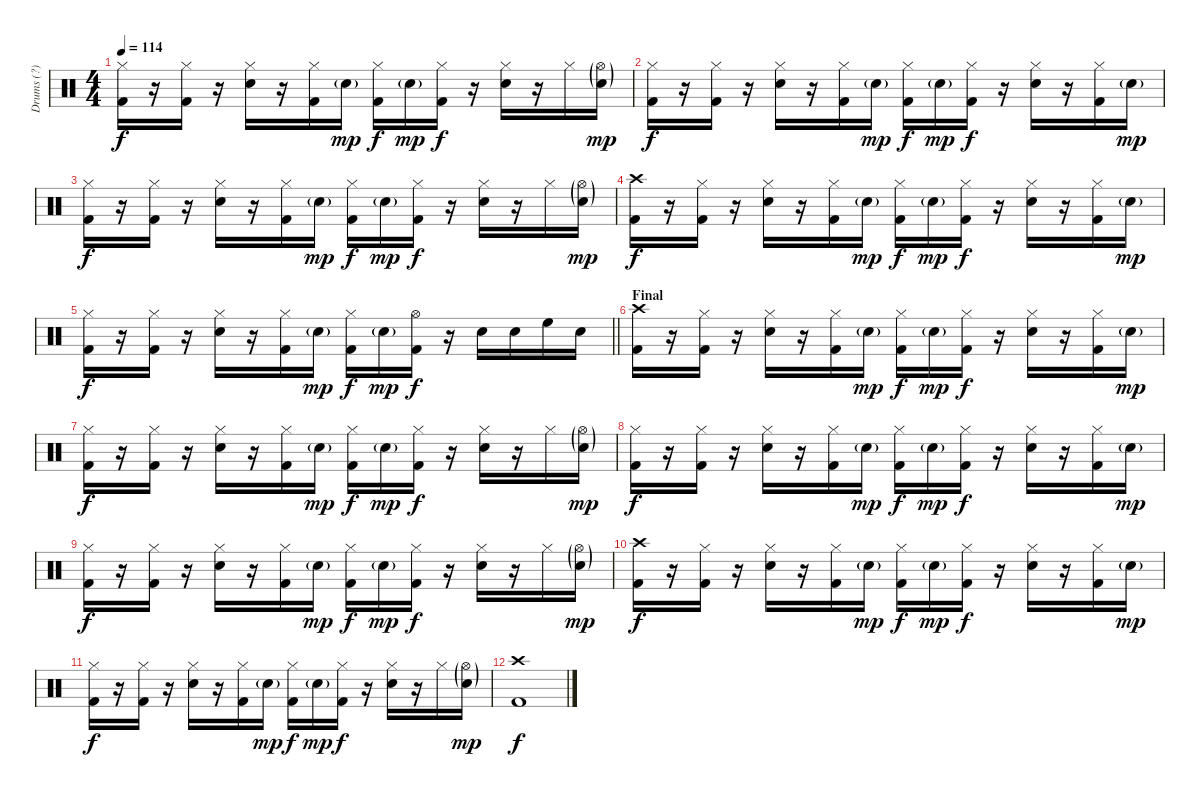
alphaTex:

\track ("Drums (?)" "Drums (?)") {instrument percussion}
\staff {score}
\articulation defaults
\ts (4 4)
\tempo 114
\clef neutral
\ks c
("Hi-Hat (closed)" "Kick (hit) 2").16{dy f} r.16 ("Hi-Hat (closed)" "Kick (hit) 2").16 r.16 ("Hi-Hat (closed)" "Snare (hit) 2").16 r.16 ("Hi-Hat (closed)" "Kick (hit) 2").16 "Snare (hit) 2"{g}.16{dy mp} ("Hi-Hat (closed)" "Kick (hit) 2").16{dy f} "Snare (hit) 2"{g}.16{dy mp} ("Hi-Hat (closed)" "Kick (hit) 2").16{dy f} r.16 ("Hi-Hat (closed)" "Snare (hit) 2").16 r.16 "Hi-Hat (closed)".16 ("Hi-Hat (open)"{g} "Snare (hit) 2"{g}).16{dy mp} |
("Hi-Hat (closed)" "Kick (hit) 2").16{dy f} r.16 ("Hi-Hat (closed)" "Kick (hit) 2").16 r.16 ("Hi-Hat (closed)" "Snare (hit) 2").16 r.16 ("Hi-Hat (closed)" "Kick (hit) 2").16 "Snare (hit) 2"{g}.16{dy mp} ("Hi-Hat (closed)" "Kick (hit) 2").16{dy f} "Snare (hit) 2"{g}.16{dy mp} ("Hi-Hat (closed)" "Kick (hit) 2").16{dy f} r.16 ("Hi-Hat (closed)" "Snare (hit) 2").16 r.16 ("Hi-Hat (closed)" "Kick (hit) 2").16 "Snare (hit) 2"{g}.16{dy mp} |
("Hi-Hat (closed)" "Kick (hit) 2").16{dy f} r.16 ("Hi-Hat (closed)" "Kick (hit) 2").16 r.16 ("Hi-Hat (closed)" "Snare (hit) 2").16 r.16 ("Hi-Hat (closed)" "Kick (hit) 2").16 "Snare (hit) 2"{g}.16{dy mp} ("Hi-Hat (closed)" "Kick (hit) 2").16{dy f} "Snare (hit) 2"{g}.16{dy mp} ("Hi-Hat (closed)" "Kick (hit) 2").16{dy f} r.16 ("Hi-Hat (closed)" "Snare (hit) 2").16 r.16 "Hi-Hat (closed)".16 ("Hi-Hat (open)"{g} "Snare (hit) 2"{g}).16{dy mp} |
("Crash high (hit)" "Kick (hit) 2").16{dy f} r.16 ("Hi-Hat (closed)" "Kick (hit) 2").16 r.16 ("Hi-Hat (closed)" "Snare (hit) 2").16 r.16 ("Hi-Hat (closed)" "Kick (hit) 2").16 "Snare (hit) 2"{g}.16{dy mp} ("Hi-Hat (closed)" "Kick (hit) 2").16{dy f} "Snare (hit) 2"{g}.16{dy mp} ("Hi-Hat (closed)" "Kick (hit) 2").16{dy f} r.16 ("Hi-Hat (closed)" "Snare (hit) 2").16 r.16 ("Hi-Hat (closed)" "Kick (hit) 2").16 "Snare (hit) 2"{g}.16{dy mp} |
\barLineRight lightlight
("Hi-Hat (closed)" "Kick (hit) 2").16{dy f} r.16 ("Hi-Hat (closed)" "Kick (hit) 2").16 r.16 ("Hi-Hat (closed)" "Snare (hit) 2").16 r.16 ("Hi-Hat (closed)" "Kick (hit) 2").16 "Snare (hit) 2"{g}.16{dy mp} ("Hi-Hat (closed)" "Kick (hit) 2").16{dy f} "Snare (hit) 2"{g}.16{dy mp} ("Hi-Hat (open)" "Kick (hit) 2").16{dy f} r.16 "Snare (hit) 2".16 "Snare (hit) 2".16 "High Floor Tom (hit)".16 "Snare (hit) 2".16 |
\section ("" "Final")
("Crash high (hit)" "Kick (hit) 2").16 r.16 ("Hi-Hat (closed)" "Kick (hit) 2").16 r.16 ("Hi-Hat (closed)" "Snare (hit) 2").16 r.16 ("Hi-Hat (closed)" "Kick (hit) 2").16 "Snare (hit) 2"{g}.16{dy mp} ("Hi-Hat (closed)" "Kick (hit) 2").16{dy f} "Snare (hit) 2"{g}.16{dy mp} ("Hi-Hat (closed)" "Kick (hit) 2").16{dy f} r.16 ("Hi-Hat (closed)" "Snare (hit) 2").16 r.16 ("Hi-Hat (closed)" "Kick (hit) 2").16 "Snare (hit) 2"{g}.16{dy mp} |
("Hi-Hat (closed)" "Kick (hit) 2").16{dy f} r.16 ("Hi-Hat (closed)" "Kick (hit) 2").16 r.16 ("Hi-Hat (closed)" "Snare (hit) 2").16 r.16 ("Hi-Hat (closed)" "Kick (hit) 2").16 "Snare (hit) 2"{g}.16{dy mp} ("Hi-Hat (closed)" "Kick (hit) 2").16{dy f} "Snare (hit) 2"{g}.16{dy mp} ("Hi-Hat (closed)" "Kick (hit) 2").16{dy f} r.16 ("Hi-Hat (closed)" "Snare (hit) 2").16 r.16 "Hi-Hat (closed)".16 ("Hi-Hat (open)"{g} "Snare (hit) 2"{g}).16{dy mp} |
("Hi-Hat (closed)" "Kick (hit) 2").16{dy f} r.16 ("Hi-Hat (closed)" "Kick (hit) 2").16 r.16 ("Hi-Hat (closed)" "Snare (hit) 2").16 r.16 ("Hi-Hat (closed)" "Kick (hit) 2").16 "Snare (hit) 2"{g}.16{dy mp} ("Hi-Hat (closed)" "Kick (hit) 2").16{dy f} "Snare (hit) 2"{g}.16{dy mp} ("Hi-Hat (closed)" "Kick (hit) 2").16{dy f} r.16 ("Hi-Hat (closed)" "Snare (hit) 2").16 r.16 ("Hi-Hat (closed)" "Kick (hit) 2").16 "Snare (hit) 2"{g}.16{dy mp} |
("Hi-Hat (closed)" "Kick (hit) 2").16{dy f} r.16 ("Hi-Hat (closed)" "Kick (hit) 2").16 r.16 ("Hi-Hat (closed)" "Snare (hit) 2").16 r.16 ("Hi-Hat (closed)" "Kick (hit) 2").16 "Snare (hit) 2"{g}.16{dy mp} ("Hi-Hat (closed)" "Kick (hit) 2").16{dy f} "Snare (hit) 2"{g}.16{dy mp} ("Hi-Hat (closed)" "Kick (hit) 2").16{dy f} r.16 ("Hi-Hat (closed)" "Snare (hit) 2").16 r.16 "Hi-Hat (closed)".16 ("Hi-Hat (open)"{g} "Snare (hit) 2"{g}).16{dy mp} |
("Crash high (hit)" "Kick (hit) 2").16{dy f} r.16 ("Hi-Hat (closed)" "Kick (hit) 2").16 r.16 ("Hi-Hat (closed)" "Snare (hit) 2").16 r.16 ("Hi-Hat (closed)" "Kick (hit) 2").16 "Snare (hit) 2"{g}.16{dy mp} ("Hi-Hat (closed)" "Kick (hit) 2").16{dy f} "Snare (hit) 2"{g}.16{dy mp} ("Hi-Hat (closed)" "Kick (hit) 2").16{dy f} r.16 ("Hi-Hat (closed)" "Snare (hit) 2").16 r.16 ("Hi-Hat (closed)" "Kick (hit) 2").16 "Snare (hit) 2"{g}.16{dy mp} |
("Hi-Hat (closed)" "Kick (hit) 2").16{dy f} r.16 ("Hi-Hat (closed)" "Kick (hit) 2").16 r.16 ("Hi-Hat (closed)" "Snare (hit) 2").16 r.16 ("Hi-Hat (closed)" "Kick (hit) 2").16 "Snare (hit) 2"{g}.16{dy mp} ("Hi-Hat (closed)" "Kick (hit) 2").16{dy f} "Snare (hit) 2"{g}.16{dy mp} ("Hi-Hat (closed)" "Kick (hit) 2").16{dy f} r.16 ("Hi-Hat (closed)" "Snare (hit) 2").16 r.16 "Hi-Hat (closed)".16 ("Hi-Hat (open)"{g} "Snare (hit) 2"{g}).16{dy mp} |
("Crash high (hit)" "Kick (hit) 2").1{dy f}
